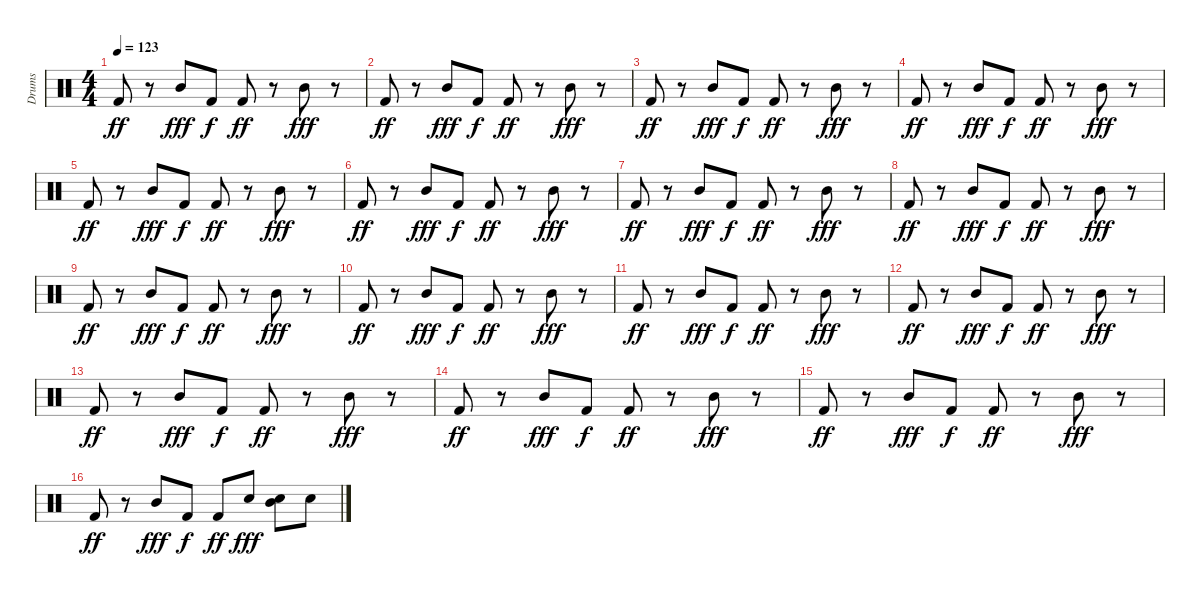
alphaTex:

\track ("Drums" "Drums") {instrument percussion}
\staff {score}
\articulation defaults
\ts (4 4)
\tempo 123
\clef neutral
\ks c "Kick (hit) 2".8{dy ff}
r.8 "Mid Tom (hit)".8{dy fff} "Kick (hit) 2".8{dy f} "Kick (hit) 2".8{dy ff} r.8 "Mid Tom (hit)".8{dy fff} r.8 |
"Kick (hit) 2".8{dy ff} r.8 "Mid Tom (hit)".8{dy fff} "Kick (hit) 2".8{dy f} "Kick (hit) 2".8{dy ff} r.8 "Mid Tom (hit)".8{dy fff} r.8 |
"Kick (hit) 2".8{dy ff} r.8 "Mid Tom (hit)".8{dy fff} "Kick (hit) 2".8{dy f} "Kick (hit) 2".8{dy ff} r.8 "Mid Tom (hit)".8{dy fff} r.8 |
"Kick (hit) 2".8{dy ff} r.8 "Mid Tom (hit)".8{dy fff} "Kick (hit) 2".8{dy f} "Kick (hit) 2".8{dy ff} r.8 "Mid Tom (hit)".8{dy fff} r.8 |
"Kick (hit) 2".8{dy ff} r.8 "Mid Tom (hit)".8{dy fff} "Kick (hit) 2".8{dy f} "Kick (hit) 2".8{dy ff} r.8 "Mid Tom (hit)".8{dy fff} r.8 |
"Kick (hit) 2".8{dy ff} r.8 "Mid Tom (hit)".8{dy fff} "Kick (hit) 2".8{dy f} "Kick (hit) 2".8{dy ff} r.8 "Mid Tom (hit)".8{dy fff} r.8 |
"Kick (hit) 2".8{dy ff} r.8 "Mid Tom (hit)".8{dy fff} "Kick (hit) 2".8{dy f} "Kick (hit) 2".8{dy ff} r.8 "Mid Tom (hit)".8{dy fff} r.8 |
"Kick (hit) 2".8{dy ff} r.8 "Mid Tom (hit)".8{dy fff} "Kick (hit) 2".8{dy f} "Kick (hit) 2".8{dy ff} r.8 "Mid Tom (hit)".8{dy fff} r.8 |
"Kick (hit) 2".8{dy ff} r.8 "Mid Tom (hit)".8{dy fff} "Kick (hit) 2".8{dy f} "Kick (hit) 2".8{dy ff} r.8 "Mid Tom (hit)".8{dy fff} r.8 |
"Kick (hit) 2".8{dy ff} r.8 "Mid Tom (hit)".8{dy fff} "Kick (hit) 2".8{dy f} "Kick (hit) 2".8{dy ff} r.8 "Mid Tom (hit)".8{dy fff} r.8 |
"Kick (hit) 2".8{dy ff} r.8 "Mid Tom (hit)".8{dy fff} "Kick (hit) 2".8{dy f} "Kick (hit) 2".8{dy ff} r.8 "Mid Tom (hit)".8{dy fff} r.8 |
"Kick (hit) 2".8{dy ff} r.8 "Mid Tom (hit)".8{dy fff} "Kick (hit) 2".8{dy f} "Kick (hit) 2".8{dy ff} r.8 "Mid Tom (hit)".8{dy fff} r.8 |
"Kick (hit) 2".8{dy ff} r.8 "Mid Tom (hit)".8{dy fff} "Kick (hit) 2".8{dy f} "Kick (hit) 2".8{dy ff} r.8 "Mid Tom (hit)".8{dy fff} r.8 |
"Kick (hit) 2".8{dy ff} r.8 "Mid Tom (hit)".8{dy fff} "Kick (hit) 2".8{dy f} "Kick (hit) 2".8{dy ff} r.8 "Mid Tom (hit)".8{dy fff} r.8 |
"Kick (hit) 2".8{dy ff} r.8 "Mid Tom (hit)".8{dy fff} "Kick (hit) 2".8{dy f} "Kick (hit) 2".8{dy ff} r.8 "Mid Tom (hit)".8{dy fff} r.8 |
"Kick (hit) 2".8{dy ff} r.8 "Mid Tom (hit)".8{dy fff} "Kick (hit) 2".8{dy f} "Kick (hit) 2".8{dy ff} "Electric Snare (hit)".8{dy fff} ("Electric Snare (hit)" "Mid Tom (hit)").8 "Electric Snare (hit)".8
